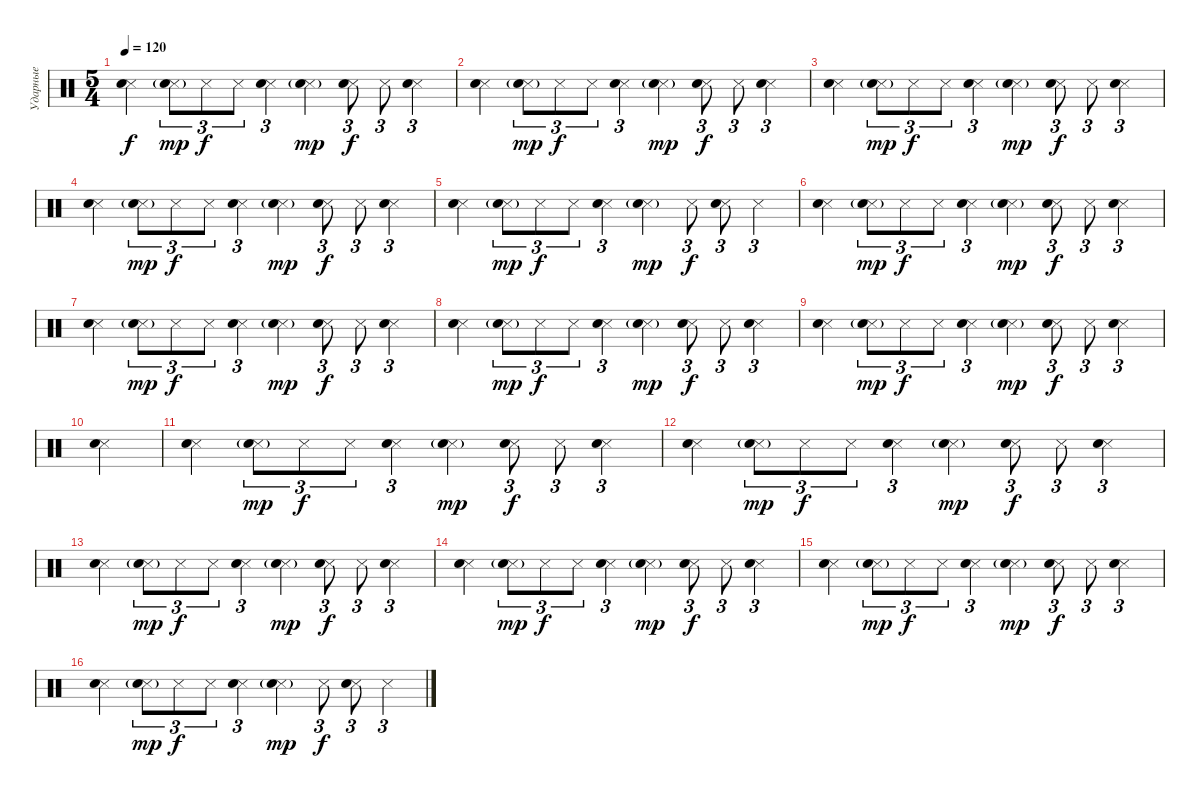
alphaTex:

\track ("Ударные" "Ударные") {instrument percussion}
\staff {score}
\articulation defaults
\ts (5 4)
\tempo 120
\clef neutral
\ks c
("Snare (side stick) 3" "Hand Clap (hit)").4{dy f} ("Snare (side stick) 3"{g} "Hand Clap (hit)"{g}).8{tu (3 2) dy mp} "Snare (side stick) 3".8{tu (3 2) dy f} "Snare (side stick) 3".8{tu (3 2)} ("Snare (side stick) 3" "Hand Clap (hit)").4{tu (3 2)} ("Snare (side stick) 3"{g} "Hand Clap (hit)"{g}).4{dy mp} ("Snare (side stick) 3" "Hand Clap (hit)").8{tu (3 2) dy f} "Snare (side stick) 3".8{tu (3 2)} ("Snare (side stick) 3" "Hand Clap (hit)").4{tu (3 2)} |
("Snare (side stick) 3" "Hand Clap (hit)").4 ("Snare (side stick) 3"{g} "Hand Clap (hit)"{g}).8{tu (3 2) dy mp} "Snare (side stick) 3".8{tu (3 2) dy f} "Snare (side stick) 3".8{tu (3 2)} ("Snare (side stick) 3" "Hand Clap (hit)").4{tu (3 2)} ("Snare (side stick) 3"{g} "Hand Clap (hit)"{g}).4{dy mp} ("Snare (side stick) 3" "Hand Clap (hit)").8{tu (3 2) dy f} "Snare (side stick) 3".8{tu (3 2)} ("Snare (side stick) 3" "Hand Clap (hit)").4{tu (3 2)} |
("Snare (side stick) 3" "Hand Clap (hit)").4 ("Snare (side stick) 3"{g} "Hand Clap (hit)"{g}).8{tu (3 2) dy mp} "Snare (side stick) 3".8{tu (3 2) dy f} "Snare (side stick) 3".8{tu (3 2)} ("Snare (side stick) 3" "Hand Clap (hit)").4{tu (3 2)} ("Snare (side stick) 3"{g} "Hand Clap (hit)"{g}).4{dy mp} ("Snare (side stick) 3" "Hand Clap (hit)").8{tu (3 2) dy f} "Snare (side stick) 3".8{tu (3 2)} ("Snare (side stick) 3" "Hand Clap (hit)").4{tu (3 2)} |
("Snare (side stick) 3" "Hand Clap (hit)").4 ("Snare (side stick) 3"{g} "Hand Clap (hit)"{g}).8{tu (3 2) dy mp} "Snare (side stick) 3".8{tu (3 2) dy f} "Snare (side stick) 3".8{tu (3 2)} ("Snare (side stick) 3" "Hand Clap (hit)").4{tu (3 2)} ("Snare (side stick) 3"{g} "Hand Clap (hit)"{g}).4{dy mp} ("Snare (side stick) 3" "Hand Clap (hit)").8{tu (3 2) dy f} "Snare (side stick) 3".8{tu (3 2)} ("Snare (side stick) 3" "Hand Clap (hit)").4{tu (3 2)} |
("Snare (side stick) 3" "Hand Clap (hit)").4 ("Snare (side stick) 3"{g} "Hand Clap (hit)"{g}).8{tu (3 2) dy mp} "Snare (side stick) 3".8{tu (3 2) dy f} "Snare (side stick) 3".8{tu (3 2)} ("Snare (side stick) 3" "Hand Clap (hit)").4{tu (3 2)} ("Snare (side stick) 3"{g} "Hand Clap (hit)"{g}).4{dy mp} "Snare (side stick) 3".8{tu (3 2) dy f} ("Snare (side stick) 3" "Hand Clap (hit)").8{tu (3 2)} "Snare (side stick) 3".4{tu (3 2)} |
("Snare (side stick) 3" "Hand Clap (hit)").4 ("Snare (side stick) 3"{g} "Hand Clap (hit)"{g}).8{tu (3 2) dy mp} "Snare (side stick) 3".8{tu (3 2) dy f} "Snare (side stick) 3".8{tu (3 2)} ("Snare (side stick) 3" "Hand Clap (hit)").4{tu (3 2)} ("Snare (side stick) 3"{g} "Hand Clap (hit)"{g}).4{dy mp} ("Snare (side stick) 3" "Hand Clap (hit)").8{tu (3 2) dy f} "Snare (side stick) 3".8{tu (3 2)} ("Snare (side stick) 3" "Hand Clap (hit)").4{tu (3 2)} |
("Snare (side stick) 3" "Hand Clap (hit)").4 ("Snare (side stick) 3"{g} "Hand Clap (hit)"{g}).8{tu (3 2) dy mp} "Snare (side stick) 3".8{tu (3 2) dy f} "Snare (side stick) 3".8{tu (3 2)} ("Snare (side stick) 3" "Hand Clap (hit)").4{tu (3 2)} ("Snare (side stick) 3"{g} "Hand Clap (hit)"{g}).4{dy mp} ("Snare (side stick) 3" "Hand Clap (hit)").8{tu (3 2) dy f} "Snare (side stick) 3".8{tu (3 2)} ("Snare (side stick) 3" "Hand Clap (hit)").4{tu (3 2)} |
("Snare (side stick) 3" "Hand Clap (hit)").4 ("Snare (side stick) 3"{g} "Hand Clap (hit)"{g}).8{tu (3 2) dy mp} "Snare (side stick) 3".8{tu (3 2) dy f} "Snare (side stick) 3".8{tu (3 2)} ("Snare (side stick) 3" "Hand Clap (hit)").4{tu (3 2)} ("Snare (side stick) 3"{g} "Hand Clap (hit)"{g}).4{dy mp} ("Snare (side stick) 3" "Hand Clap (hit)").8{tu (3 2) dy f} "Snare (side stick) 3".8{tu (3 2)} ("Snare (side stick) 3" "Hand Clap (hit)").4{tu (3 2)} |
("Snare (side stick) 3" "Hand Clap (hit)").4 ("Snare (side stick) 3"{g} "Hand Clap (hit)"{g}).8{tu (3 2) dy mp} "Snare (side stick) 3".8{tu (3 2) dy f} "Snare (side stick) 3".8{tu (3 2)} ("Snare (side stick) 3" "Hand Clap (hit)").4{tu (3 2)} ("Snare (side stick) 3"{g} "Hand Clap (hit)"{g}).4{dy mp} ("Snare (side stick) 3" "Hand Clap (hit)").8{tu (3 2) dy f} "Snare (side stick) 3".8{tu (3 2)} ("Snare (side stick) 3" "Hand Clap (hit)").4{tu (3 2)} |
("Snare (side stick) 3" "Hand Clap (hit)").4 |
("Snare (side stick) 3" "Hand Clap (hit)").4 ("Snare (side stick) 3"{g} "Hand Clap (hit)"{g}).8{tu (3 2) dy mp} "Snare (side stick) 3".8{tu (3 2) dy f} "Snare (side stick) 3".8{tu (3 2)} ("Snare (side stick) 3" "Hand Clap (hit)").4{tu (3 2)} ("Snare (side stick) 3"{g} "Hand Clap (hit)"{g}).4{dy mp} ("Snare (side stick) 3" "Hand Clap (hit)").8{tu (3 2) dy f} "Snare (side stick) 3".8{tu (3 2)} ("Snare (side stick) 3" "Hand Clap (hit)").4{tu (3 2)} |
("Snare (side stick) 3" "Hand Clap (hit)").4 ("Snare (side stick) 3"{g} "Hand Clap (hit)"{g}).8{tu (3 2) dy mp} "Snare (side stick) 3".8{tu (3 2) dy f} "Snare (side stick) 3".8{tu (3 2)} ("Snare (side stick) 3" "Hand Clap (hit)").4{tu (3 2)} ("Snare (side stick) 3"{g} "Hand Clap (hit)"{g}).4{dy mp} ("Snare (side stick) 3" "Hand Clap (hit)").8{tu (3 2) dy f} "Snare (side stick) 3".8{tu (3 2)} ("Snare (side stick) 3" "Hand Clap (hit)").4{tu (3 2)} |
("Snare (side stick) 3" "Hand Clap (hit)").4 ("Snare (side stick) 3"{g} "Hand Clap (hit)"{g}).8{tu (3 2) dy mp} "Snare (side stick) 3".8{tu (3 2) dy f} "Snare (side stick) 3".8{tu (3 2)} ("Snare (side stick) 3" "Hand Clap (hit)").4{tu (3 2)} ("Snare (side stick) 3"{g} "Hand Clap (hit)"{g}).4{dy mp} ("Snare (side stick) 3" "Hand Clap (hit)").8{tu (3 2) dy f} "Snare (side stick) 3".8{tu (3 2)} ("Snare (side stick) 3" "Hand Clap (hit)").4{tu (3 2)} |
("Snare (side stick) 3" "Hand Clap (hit)").4 ("Snare (side stick) 3"{g} "Hand Clap (hit)"{g}).8{tu (3 2) dy mp} "Snare (side stick) 3".8{tu (3 2) dy f} "Snare (side stick) 3".8{tu (3 2)} ("Snare (side stick) 3" "Hand Clap (hit)").4{tu (3 2)} ("Snare (side stick) 3"{g} "Hand Clap (hit)"{g}).4{dy mp} ("Snare (side stick) 3" "Hand Clap (hit)").8{tu (3 2) dy f} "Snare (side stick) 3".8{tu (3 2)} ("Snare (side stick) 3" "Hand Clap (hit)").4{tu (3 2)} |
("Snare (side stick) 3" "Hand Clap (hit)").4 ("Snare (side stick) 3"{g} "Hand Clap (hit)"{g}).8{tu (3 2) dy mp} "Snare (side stick) 3".8{tu (3 2) dy f} "Snare (side stick) 3".8{tu (3 2)} ("Snare (side stick) 3" "Hand Clap (hit)").4{tu (3 2)} ("Snare (side stick) 3"{g} "Hand Clap (hit)"{g}).4{dy mp} ("Snare (side stick) 3" "Hand Clap (hit)").8{tu (3 2) dy f} "Snare (side stick) 3".8{tu (3 2)} ("Snare (side stick) 3" "Hand Clap (hit)").4{tu (3 2)} |
("Snare (side stick) 3" "Hand Clap (hit)").4 ("Snare (side stick) 3"{g} "Hand Clap (hit)"{g}).8{tu (3 2) dy mp} "Snare (side stick) 3".8{tu (3 2) dy f} "Snare (side stick) 3".8{tu (3 2)} ("Snare (side stick) 3" "Hand Clap (hit)").4{tu (3 2)} ("Snare (side stick) 3"{g} "Hand Clap (hit)"{g}).4{dy mp} "Snare (side stick) 3".8{tu (3 2) dy f} ("Snare (side stick) 3" "Hand Clap (hit)").8{tu (3 2)} "Snare (side stick) 3".4{tu (3 2)}
